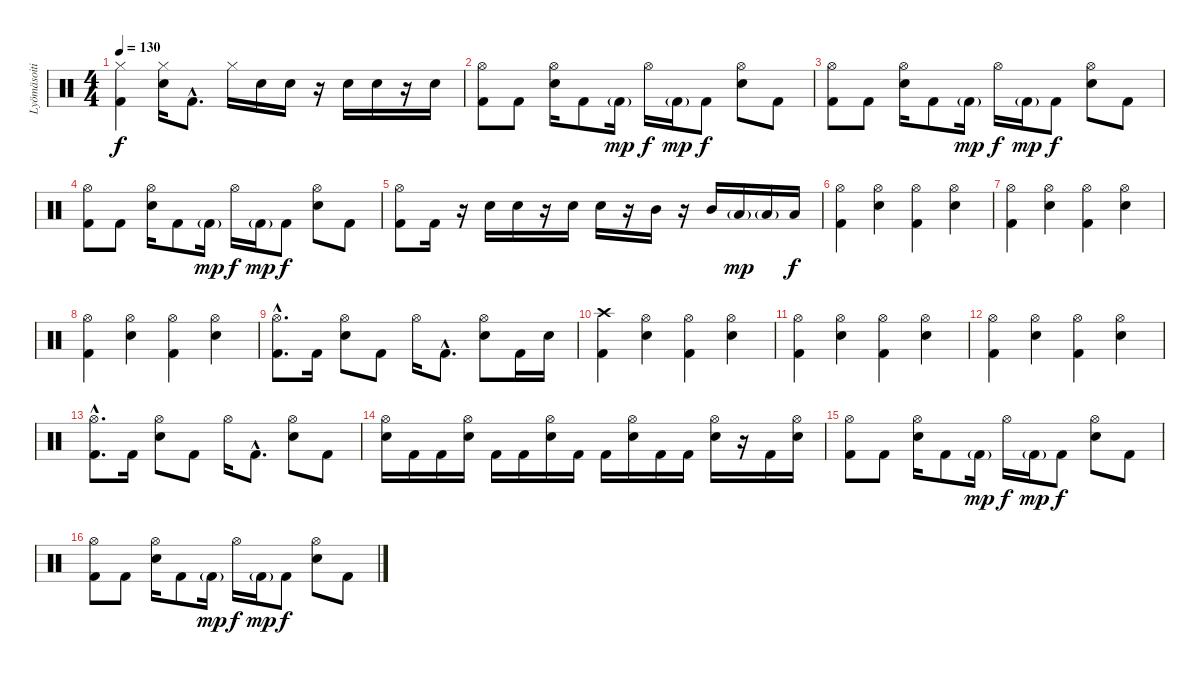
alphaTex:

\track ("Lyömäsoitin" "Lyömäsoiti") {instrument percussion}
\staff {score}
\articulation defaults
\ts (4 4)
\tempo 130
\clef neutral
\ks c
("Hi-Hat (closed)" "Kick (hit) 2").4{dy f} ("Hi-Hat (closed)" "Electric Snare (hit)").16 "Kick (hit) 2"{hac}.8{d} "Hi-Hat (closed)".16 "Electric Snare (hit)".16 "Electric Snare (hit)".16 r.16 "Electric Snare (hit)".16 "Electric Snare (hit)".16 r.16 "Electric Snare (hit)".16 |
("Hi-Hat (open)" "Kick (hit) 2").8 "Kick (hit) 2".8 ("Hi-Hat (open)" "Electric Snare (hit)").16 "Kick (hit) 2".8 "Kick (hit) 2"{g}.16{dy mp} "Hi-Hat (open)".16{dy f} "Kick (hit) 2"{g}.16{dy mp} "Kick (hit) 2".8{dy f} ("Electric Snare (hit)" "Hi-Hat (open)").8 "Kick (hit) 2".8 |
("Hi-Hat (open)" "Kick (hit) 2").8 "Kick (hit) 2".8 ("Hi-Hat (open)" "Electric Snare (hit)").16 "Kick (hit) 2".8 "Kick (hit) 2"{g}.16{dy mp} "Hi-Hat (open)".16{dy f} "Kick (hit) 2"{g}.16{dy mp} "Kick (hit) 2".8{dy f} ("Electric Snare (hit)" "Hi-Hat (open)").8 "Kick (hit) 2".8 |
("Hi-Hat (open)" "Kick (hit) 2").8 "Kick (hit) 2".8 ("Hi-Hat (open)" "Electric Snare (hit)").16 "Kick (hit) 2".8 "Kick (hit) 2"{g}.16{dy mp} "Hi-Hat (open)".16{dy f} "Kick (hit) 2"{g}.16{dy mp} "Kick (hit) 2".8{dy f} ("Electric Snare (hit)" "Hi-Hat (open)").8 "Kick (hit) 2".8 |
("Hi-Hat (open)" "Kick (hit) 2").8 "Kick (hit) 2".16 r.16 "Electric Snare (hit)".16 "Electric Snare (hit)".16 r.16 "Electric Snare (hit)".16 "Electric Snare (hit)".16 r.16 "Mid Tom (hit)".16 r.16 "Mid Tom (hit)".16 "Low Tom (hit)"{g}.16{dy mp} "Low Tom (hit)"{g}.16 "Low Floor Tom (hit)".16{dy f} |
("Hi-Hat (open)" "Kick (hit) 2").4 ("Hi-Hat (open)" "Electric Snare (hit)").4 ("Hi-Hat (open)" "Kick (hit) 2").4 ("Hi-Hat (open)" "Electric Snare (hit)").4 |
("Hi-Hat (open)" "Kick (hit) 2").4 ("Hi-Hat (open)" "Electric Snare (hit)").4 ("Hi-Hat (open)" "Kick (hit) 2").4 ("Hi-Hat (open)" "Electric Snare (hit)").4 |
("Hi-Hat (open)" "Kick (hit) 2").4 ("Hi-Hat (open)" "Electric Snare (hit)").4 ("Hi-Hat (open)" "Kick (hit) 2").4 ("Hi-Hat (open)" "Electric Snare (hit)").4 |
("Hi-Hat (open)"{hac} "Kick (hit) 2"{hac}).8{d} "Kick (hit) 2".16 ("Hi-Hat (open)" "Electric Snare (hit)").8 "Kick (hit) 2".8 "Hi-Hat (open)".16 "Kick (hit) 2"{hac}.8{d} ("Hi-Hat (open)" "Electric Snare (hit)").8 "Kick (hit) 2".16 "Electric Snare (hit)".16 |
("Crash high (hit)" "Kick (hit) 2").4 ("Hi-Hat (open)" "Electric Snare (hit)").4 ("Hi-Hat (open)" "Kick (hit) 2").4 ("Hi-Hat (open)" "Electric Snare (hit)").4 |
("Hi-Hat (open)" "Kick (hit) 2").4 ("Hi-Hat (open)" "Electric Snare (hit)").4 ("Hi-Hat (open)" "Kick (hit) 2").4 ("Hi-Hat (open)" "Electric Snare (hit)").4 |
("Hi-Hat (open)" "Kick (hit) 2").4 ("Hi-Hat (open)" "Electric Snare (hit)").4 ("Hi-Hat (open)" "Kick (hit) 2").4 ("Hi-Hat (open)" "Electric Snare (hit)").4 |
("Hi-Hat (open)"{hac} "Kick (hit) 2"{hac}).8{d} "Kick (hit) 2".16 ("Hi-Hat (open)" "Electric Snare (hit)").8 "Kick (hit) 2".8 "Hi-Hat (open)".16 "Kick (hit) 2"{hac}.8{d} ("Hi-Hat (open)" "Electric Snare (hit)").8 "Kick (hit) 2".8 |
("Hi-Hat (open)" "Electric Snare (hit)").16 "Kick (hit) 2".16 "Kick (hit) 2".16 ("Hi-Hat (open)" "Electric Snare (hit)").16 "Kick (hit) 2".16 "Kick (hit) 2".16 ("Hi-Hat (open)" "Electric Snare (hit)").16 "Kick (hit) 2".16 "Kick (hit) 2".16 ("Hi-Hat (open)" "Electric Snare (hit)").16 "Kick (hit) 2".16 "Kick (hit) 2".16 ("Hi-Hat (open)" "Electric Snare (hit)").16 r.16 "Kick (hit) 2".16 ("Hi-Hat (open)" "Electric Snare (hit)").16 |
("Hi-Hat (open)" "Kick (hit) 2").8 "Kick (hit) 2".8 ("Hi-Hat (open)" "Electric Snare (hit)").16 "Kick (hit) 2".8 "Kick (hit) 2"{g}.16{dy mp} "Hi-Hat (open)".16{dy f} "Kick (hit) 2"{g}.16{dy mp} "Kick (hit) 2".8{dy f} ("Electric Snare (hit)" "Hi-Hat (open)").8 "Kick (hit) 2".8 |
("Hi-Hat (open)" "Kick (hit) 2").8 "Kick (hit) 2".8 ("Hi-Hat (open)" "Electric Snare (hit)").16 "Kick (hit) 2".8 "Kick (hit) 2"{g}.16{dy mp} "Hi-Hat (open)".16{dy f} "Kick (hit) 2"{g}.16{dy mp} "Kick (hit) 2".8{dy f} ("Electric Snare (hit)" "Hi-Hat (open)").8 "Kick (hit) 2".8
